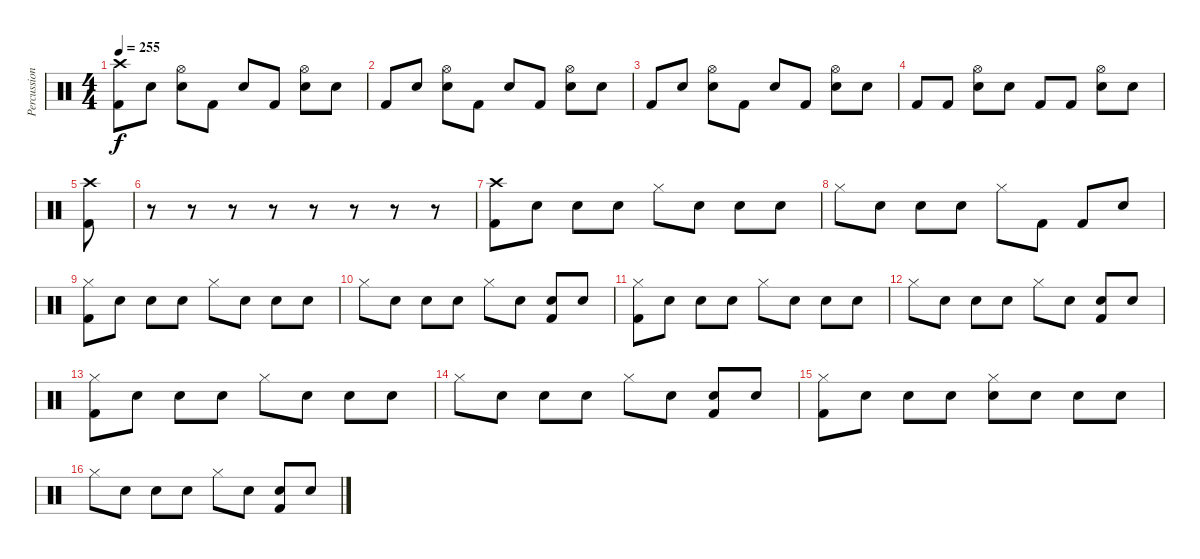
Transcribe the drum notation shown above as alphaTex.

\track ("Percussion" "Percussion") {instrument percussion}
\staff {score}
\articulation defaults
\ts (4 4)
\tempo 255
\clef neutral
\ks c
("Kick (hit) 2" "Crash high (hit)").8{dy f} "Snare (hit)"{x}.8 ("Snare (hit) 2" "Hi-Hat (open)").8 "Kick (hit) 2".8 "Snare (hit)"{x}.8 "Kick (hit) 2".8 ("Snare (hit) 2" "Hi-Hat (open)").8 "Snare (hit)"{x}.8 |
"Kick (hit) 2".8 "Snare (hit)"{x}.8 ("Snare (hit) 2" "Hi-Hat (open)").8 "Kick (hit) 2".8 "Snare (hit)"{x}.8 "Kick (hit) 2".8 ("Snare (hit) 2" "Hi-Hat (open)").8 "Snare (hit)"{x}.8 |
"Kick (hit) 2".8 "Snare (hit)"{x}.8 ("Snare (hit) 2" "Hi-Hat (open)").8 "Kick (hit) 2".8 "Snare (hit)"{x}.8 "Kick (hit) 2".8 ("Snare (hit) 2" "Hi-Hat (open)").8 "Snare (hit)"{x}.8 |
"Kick (hit) 2".8 "Kick (hit) 2".8 ("Snare (hit) 2" "Hi-Hat (open)").8 "Snare (hit)"{x}.8 "Kick (hit) 2".8 "Kick (hit) 2".8 ("Snare (hit) 2" "Hi-Hat (open)").8 "Snare (hit)"{x}.8 |
("Kick (hit) 2" "Crash high (hit)").8 |
r.8 r.8 r.8 r.8 r.8 r.8 r.8 r.8 |
("Kick (hit) 2" "Crash high (hit)").8 "Snare (hit)"{x}.8 "Snare (hit)"{x}.8 "Snare (hit)"{x}.8 "Hi-Hat (closed)".8 "Snare (hit)"{x}.8 "Snare (hit)"{x}.8 "Snare (hit)"{x}.8 |
"Hi-Hat (closed)".8 "Snare (hit)"{x}.8 "Snare (hit)"{x}.8 "Snare (hit)"{x}.8 "Hi-Hat (closed)".8 "Kick (hit) 2"{x}.8 "Kick (hit) 2".8 "Snare (hit)"{x}.8 |
("Kick (hit) 2" "Hi-Hat (closed)").8 "Snare (hit)"{x}.8 "Snare (hit)"{x}.8 "Snare (hit)"{x}.8 "Hi-Hat (closed)".8 "Snare (hit)"{x}.8 "Snare (hit)"{x}.8 "Snare (hit)"{x}.8 |
"Hi-Hat (closed)".8 "Snare (hit)"{x}.8 "Snare (hit)"{x}.8 "Snare (hit)"{x}.8 "Hi-Hat (closed)".8 "Snare (hit)"{x}.8 ("Kick (hit) 2" "Snare (hit)"{x}).8 "Snare (hit)"{x}.8 |
("Kick (hit) 2" "Hi-Hat (closed)").8 "Snare (hit)"{x}.8 "Snare (hit)"{x}.8 "Snare (hit)"{x}.8 "Hi-Hat (closed)".8 "Snare (hit)"{x}.8 "Snare (hit)"{x}.8 "Snare (hit)"{x}.8 |
"Hi-Hat (closed)".8 "Snare (hit)"{x}.8 "Snare (hit)"{x}.8 "Snare (hit)"{x}.8 "Hi-Hat (closed)".8 "Snare (hit)"{x}.8 ("Kick (hit) 2" "Snare (hit)"{x}).8 "Snare (hit)"{x}.8 |
("Kick (hit) 2" "Hi-Hat (closed)").8 "Snare (hit)"{x}.8 "Snare (hit)"{x}.8 "Snare (hit)"{x}.8 "Hi-Hat (closed)".8 "Snare (hit)"{x}.8 "Snare (hit)"{x}.8 "Snare (hit)"{x}.8 |
"Hi-Hat (closed)".8 "Snare (hit)"{x}.8 "Snare (hit)"{x}.8 "Snare (hit)"{x}.8 "Hi-Hat (closed)".8 "Snare (hit)"{x}.8 ("Kick (hit) 2" "Snare (hit)"{x}).8 "Snare (hit)"{x}.8 |
("Kick (hit) 2" "Hi-Hat (closed)").8 "Snare (hit)"{x}.8 "Snare (hit)"{x}.8 "Snare (hit)"{x}.8 ("Snare (hit) 2" "Hi-Hat (closed)").8 "Snare (hit)"{x}.8 "Snare (hit)"{x}.8 "Snare (hit)"{x}.8 |
"Hi-Hat (closed)".8 "Snare (hit)"{x}.8 "Snare (hit)"{x}.8 "Snare (hit)"{x}.8 "Hi-Hat (closed)".8 "Snare (hit)"{x}.8 ("Kick (hit) 2" "Snare (hit)"{x}).8 "Snare (hit)"{x}.8
